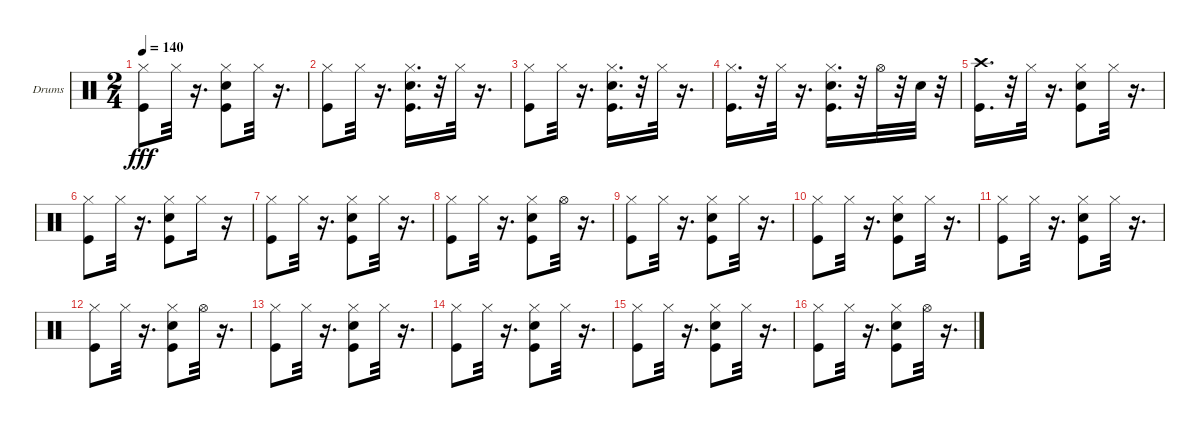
\bracketExtendMode groupsimilarinstruments
\firstSystemTrackNameOrientation horizontal
\otherSystemsTrackNameOrientation horizontal
\track ("Ударные" "Drums") {instrument percussion}
\staff {score}
\articulation defaults
\ts (2 4)
\tempo 140
\clef neutral
\ks c
("Kick (hit)" "Hi-Hat (closed)").8{dy fff} "Hi-Hat (closed)".32 r.16{d} ("Snare (hit) 2" "Kick (hit)" "Hi-Hat (closed)").8 "Hi-Hat (closed)".32 r.16{d} |
("Kick (hit)" "Hi-Hat (closed)").8 "Hi-Hat (closed)".32 r.16{d} ("Hi-Hat (closed)" "Snare (hit) 2" "Kick (hit)").16{d} r.32 "Hi-Hat (closed)".32 r.16{d} |
("Kick (hit)" "Hi-Hat (closed)").8 "Hi-Hat (closed)".32 r.16{d} ("Snare (hit) 2" "Hi-Hat (closed)" "Kick (hit)").16{d} r.32 "Hi-Hat (closed)".32 r.16{d} |
("Kick (hit)" "Hi-Hat (closed)").16{d} r.32 "Hi-Hat (closed)".32 r.16{d} ("Snare (hit) 2" "Kick (hit)" "Hi-Hat (closed)").16{d} r.32 "Hi-Hat (open)".32 r.32 "Snare (hit) 2".32 r.32 |
("Kick (hit)" "Crash high (hit)").16{d} r.32 "Hi-Hat (closed)".32 r.16{d} ("Hi-Hat (closed)" "Kick (hit)" "Snare (hit) 2").8 "Hi-Hat (closed)".32 r.16{d} |
("Kick (hit)" "Hi-Hat (closed)").8 "Hi-Hat (closed)".32 r.16{d} ("Snare (hit) 2" "Kick (hit)" "Hi-Hat (closed)").8 "Hi-Hat (closed)".16 r.16 |
("Kick (hit)" "Hi-Hat (closed)").8 "Hi-Hat (closed)".32 r.16{d} ("Hi-Hat (closed)" "Snare (hit) 2" "Kick (hit)").8 "Hi-Hat (closed)".32 r.16{d} |
("Kick (hit)" "Hi-Hat (closed)").8 "Hi-Hat (closed)".32 r.16{d} ("Snare (hit) 2" "Hi-Hat (closed)" "Kick (hit)").8 "Hi-Hat (open)".32 r.16{d} |
("Kick (hit)" "Hi-Hat (closed)").8 "Hi-Hat (closed)".32 r.16{d} ("Snare (hit) 2" "Kick (hit)" "Hi-Hat (closed)").8 "Hi-Hat (closed)".32 r.16{d} |
("Kick (hit)" "Hi-Hat (closed)").8 "Hi-Hat (closed)".32 r.16{d} ("Snare (hit) 2" "Kick (hit)" "Hi-Hat (closed)").8 "Hi-Hat (closed)".32 r.16{d} |
("Kick (hit)" "Hi-Hat (closed)").8 "Hi-Hat (closed)".32 r.16{d} ("Snare (hit) 2" "Kick (hit)" "Hi-Hat (closed)").8 "Hi-Hat (closed)".32 r.16{d} |
("Kick (hit)" "Hi-Hat (closed)").8 "Hi-Hat (closed)".32 r.16{d} ("Hi-Hat (closed)" "Snare (hit) 2" "Kick (hit)").8 "Hi-Hat (open)".32 r.16{d} |
("Kick (hit)" "Hi-Hat (closed)").8 "Hi-Hat (closed)".32 r.16{d} ("Snare (hit) 2" "Kick (hit)" "Hi-Hat (closed)").8 "Hi-Hat (closed)".32 r.16{d} |
("Kick (hit)" "Hi-Hat (closed)").8 "Hi-Hat (closed)".32 r.16{d} ("Snare (hit) 2" "Kick (hit)" "Hi-Hat (closed)").8 "Hi-Hat (closed)".32 r.16{d} |
("Kick (hit)" "Hi-Hat (closed)").8 "Hi-Hat (closed)".32 r.16{d} ("Snare (hit) 2" "Kick (hit)" "Hi-Hat (closed)").8 "Hi-Hat (closed)".32 r.16{d} |
("Kick (hit)" "Hi-Hat (closed)").8 "Hi-Hat (closed)".32 r.16{d} ("Snare (hit) 2" "Kick (hit)" "Hi-Hat (closed)").8 "Hi-Hat (open)".32 r.16{d}
